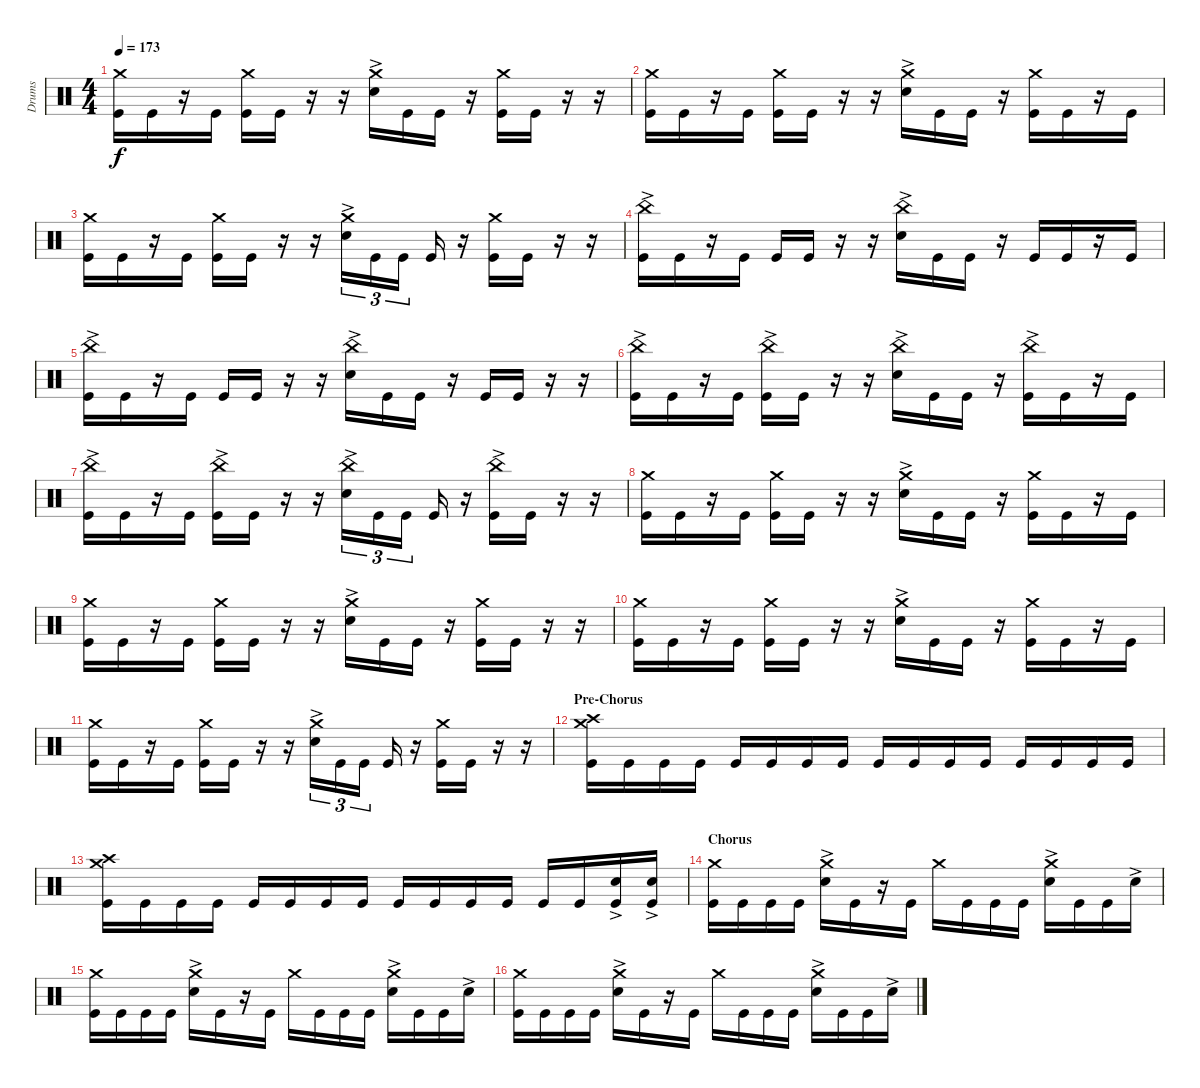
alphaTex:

\track ("Drums" "Drums") {instrument percussion}
\staff {score}
\articulation defaults
\ts (4 4)
\tempo 173
\clef neutral
\ks c
("Crash medium (hit)" "Kick (hit)").16{dy f} "Kick (hit)".16 r.16 "Kick (hit)".16 ("Crash medium (hit)" "Kick (hit)").16 "Kick (hit)".16 r.16 r.16 ("Crash medium (hit)" "Snare (hit) 2"{ac}).16 "Kick (hit)".16 "Kick (hit)".16 r.16 ("Crash medium (hit)" "Kick (hit)").16 "Kick (hit)".16 r.16 r.16 |
("Crash medium (hit)" "Kick (hit)").16 "Kick (hit)".16 r.16 "Kick (hit)".16 ("Crash medium (hit)" "Kick (hit)").16 "Kick (hit)".16 r.16 r.16 ("Crash medium (hit)" "Snare (hit) 2"{ac}).16 "Kick (hit)".16 "Kick (hit)".16 r.16 ("Crash medium (hit)" "Kick (hit)").16 "Kick (hit)".16 r.16 "Kick (hit)".16 |
("Crash medium (hit)" "Kick (hit)").16 "Kick (hit)".16 r.16 "Kick (hit)".16 ("Crash medium (hit)" "Kick (hit)").16 "Kick (hit)".16 r.16 r.16 ("Crash medium (hit)" "Snare (hit) 2"{ac}).16{tu (3 2)} "Kick (hit)".16{tu (3 2)} "Kick (hit)".16{tu (3 2)} "Kick (hit)".16 r.16 ("Kick (hit)" "Crash medium (hit)").16 "Kick (hit)".16 r.16 r.16 |
("Kick (hit)" "China (hit)"{ac}).16 "Kick (hit)".16 r.16 "Kick (hit)".16 "Kick (hit)".16 "Kick (hit)".16 r.16 r.16 ("Snare (hit) 2"{ac} "China (hit)"{ac}).16 "Kick (hit)".16 "Kick (hit)".16 r.16 "Kick (hit)".16 "Kick (hit)".16 r.16 "Kick (hit)".16 |
("Kick (hit)" "China (hit)"{ac}).16 "Kick (hit)".16 r.16 "Kick (hit)".16 "Kick (hit)".16 "Kick (hit)".16 r.16 r.16 ("Snare (hit) 2"{ac} "China (hit)"{ac}).16 "Kick (hit)".16 "Kick (hit)".16 r.16 "Kick (hit)".16 "Kick (hit)".16 r.16 r.16 |
("Kick (hit)" "China (hit)"{ac}).16 "Kick (hit)".16 r.16 "Kick (hit)".16 ("Kick (hit)" "China (hit)"{ac}).16 "Kick (hit)".16 r.16 r.16 ("Snare (hit) 2"{ac} "China (hit)"{ac}).16 "Kick (hit)".16 "Kick (hit)".16 r.16 ("Kick (hit)" "China (hit)"{ac}).16 "Kick (hit)".16 r.16 "Kick (hit)".16 |
("Kick (hit)" "China (hit)"{ac}).16 "Kick (hit)".16 r.16 "Kick (hit)".16 ("Kick (hit)" "China (hit)"{ac}).16 "Kick (hit)".16 r.16 r.16 ("Snare (hit) 2"{ac} "China (hit)"{ac}).16{tu (3 2)} "Kick (hit)".16{tu (3 2)} "Kick (hit)".16{tu (3 2)} "Kick (hit)".16 r.16 ("Kick (hit)" "China (hit)"{ac}).16 "Kick (hit)".16 r.16 r.16 |
("Crash medium (hit)" "Kick (hit)").16 "Kick (hit)".16 r.16 "Kick (hit)".16 ("Crash medium (hit)" "Kick (hit)").16 "Kick (hit)".16 r.16 r.16 ("Crash medium (hit)" "Snare (hit) 2"{ac}).16 "Kick (hit)".16 "Kick (hit)".16 r.16 ("Crash medium (hit)" "Kick (hit)").16 "Kick (hit)".16 r.16 "Kick (hit)".16 |
("Crash medium (hit)" "Kick (hit)").16 "Kick (hit)".16 r.16 "Kick (hit)".16 ("Crash medium (hit)" "Kick (hit)").16 "Kick (hit)".16 r.16 r.16 ("Crash medium (hit)" "Snare (hit) 2"{ac}).16 "Kick (hit)".16 "Kick (hit)".16 r.16 ("Crash medium (hit)" "Kick (hit)").16 "Kick (hit)".16 r.16 r.16 |
("Crash medium (hit)" "Kick (hit)").16 "Kick (hit)".16 r.16 "Kick (hit)".16 ("Crash medium (hit)" "Kick (hit)").16 "Kick (hit)".16 r.16 r.16 ("Crash medium (hit)" "Snare (hit) 2"{ac}).16 "Kick (hit)".16 "Kick (hit)".16 r.16 ("Crash medium (hit)" "Kick (hit)").16 "Kick (hit)".16 r.16 "Kick (hit)".16 |
("Crash medium (hit)" "Kick (hit)").16 "Kick (hit)".16 r.16 "Kick (hit)".16 ("Crash medium (hit)" "Kick (hit)").16 "Kick (hit)".16 r.16 r.16 ("Crash medium (hit)" "Snare (hit) 2"{ac}).16{tu (3 2)} "Kick (hit)".16{tu (3 2)} "Kick (hit)".16{tu (3 2)} "Kick (hit)".16 r.16 ("Kick (hit)" "Crash medium (hit)").16 "Kick (hit)".16 r.16 r.16 |
\section ("" "Pre-Chorus")
("Kick (hit)" "Crash medium (hit)" "Crash high (hit)").16 "Kick (hit)".16 "Kick (hit)".16 "Kick (hit)".16 "Kick (hit)".16 "Kick (hit)".16 "Kick (hit)".16 "Kick (hit)".16 "Kick (hit)".16 "Kick (hit)".16 "Kick (hit)".16 "Kick (hit)".16 "Kick (hit)".16 "Kick (hit)".16 "Kick (hit)".16 "Kick (hit)".16 |
("Kick (hit)" "Crash medium (hit)" "Crash high (hit)").16 "Kick (hit)".16 "Kick (hit)".16 "Kick (hit)".16 "Kick (hit)".16 "Kick (hit)".16 "Kick (hit)".16 "Kick (hit)".16 "Kick (hit)".16 "Kick (hit)".16 "Kick (hit)".16 "Kick (hit)".16 "Kick (hit)".16 "Kick (hit)".16 ("Kick (hit)" "Snare (hit) 2"{ac}).16 ("Kick (hit)" "Snare (hit) 2"{ac}).16 |
\section ("" "Chorus")
("Crash medium (hit)" "Kick (hit)").16 "Kick (hit)".16 "Kick (hit)".16 "Kick (hit)".16 ("Crash medium (hit)" "Snare (hit) 2"{ac}).16 "Kick (hit)".16 r.16 "Kick (hit)".16 "Crash medium (hit)".16 "Kick (hit)".16 "Kick (hit)".16 "Kick (hit)".16 ("Crash medium (hit)" "Snare (hit) 2"{ac}).16 "Kick (hit)".16 "Kick (hit)".16 "Snare (hit) 2"{ac}.16 |
("Crash medium (hit)" "Kick (hit)").16 "Kick (hit)".16 "Kick (hit)".16 "Kick (hit)".16 ("Crash medium (hit)" "Snare (hit) 2"{ac}).16 "Kick (hit)".16 r.16 "Kick (hit)".16 "Crash medium (hit)".16 "Kick (hit)".16 "Kick (hit)".16 "Kick (hit)".16 ("Crash medium (hit)" "Snare (hit) 2"{ac}).16 "Kick (hit)".16 "Kick (hit)".16 "Snare (hit) 2"{ac}.16 |
("Crash medium (hit)" "Kick (hit)").16 "Kick (hit)".16 "Kick (hit)".16 "Kick (hit)".16 ("Crash medium (hit)" "Snare (hit) 2"{ac}).16 "Kick (hit)".16 r.16 "Kick (hit)".16 "Crash medium (hit)".16 "Kick (hit)".16 "Kick (hit)".16 "Kick (hit)".16 ("Crash medium (hit)" "Snare (hit) 2"{ac}).16 "Kick (hit)".16 "Kick (hit)".16 "Snare (hit) 2"{ac}.16
